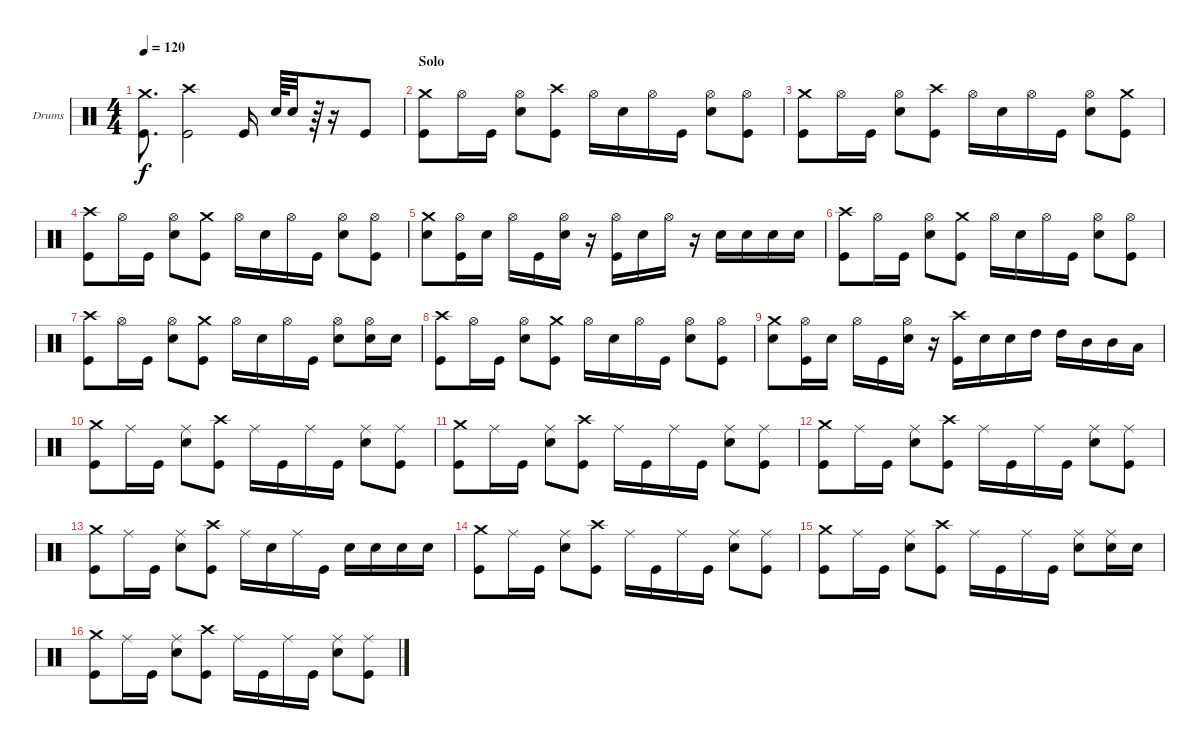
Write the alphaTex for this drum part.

\defaultSystemsLayout 4
\bracketExtendMode nobrackets
\firstSystemTrackNameOrientation horizontal
\otherSystemsTrackNameOrientation horizontal
\track ("Dave Krusen" "Drums") {instrument percussion}
\staff {score}
\articulation defaults
\ts (4 4)
\tempo 120
\clef neutral
\ks c
("Crash medium (hit)" "Kick (hit)").8{d dy f} ("Crash high (hit)" "Kick (hit)").2 "Kick (hit)".16 "Snare (hit) 2".64 "Snare (hit) 2".32 r.64 r.16 "Kick (hit)".8 |
\section ("" "Solo")
("Crash medium (hit)" "Kick (hit)").8 "Hi-Hat (open)".16 "Kick (hit)".16 ("Hi-Hat (open)" "Snare (hit) 2").8 ("Crash high (hit)" "Kick (hit)").8 "Hi-Hat (open)".16 "Snare (hit) 2".16 "Hi-Hat (open)".16 "Kick (hit)".16 ("Hi-Hat (open)" "Snare (hit) 2").8 ("Hi-Hat (open)" "Kick (hit)").8 |
("Crash medium (hit)" "Kick (hit)").8 "Hi-Hat (open)".16 "Kick (hit)".16 ("Hi-Hat (open)" "Snare (hit) 2").8 ("Crash high (hit)" "Kick (hit)").8 "Hi-Hat (open)".16 "Snare (hit) 2".16 "Hi-Hat (open)".16 "Kick (hit)".16 ("Hi-Hat (open)" "Snare (hit) 2").8 ("Crash medium (hit)" "Kick (hit)").8 |
("Crash high (hit)" "Kick (hit)").8 "Hi-Hat (open)".16 "Kick (hit)".16 ("Hi-Hat (open)" "Snare (hit) 2").8 ("Crash medium (hit)" "Kick (hit)").8 "Hi-Hat (open)".16 "Snare (hit) 2".16 "Hi-Hat (open)".16 "Kick (hit)".16 ("Hi-Hat (open)" "Snare (hit) 2").8 ("Hi-Hat (open)" "Kick (hit)").8 |
("Crash medium (hit)" "Snare (hit) 2").8 ("Hi-Hat (open)" "Kick (hit)").16 "Snare (hit) 2".16 "Hi-Hat (open)".16 "Kick (hit)".16 ("Hi-Hat (open)" "Snare (hit) 2").16 r.16 ("Hi-Hat (open)" "Kick (hit)").16 "Snare (hit) 2".16 "Hi-Hat (open)".16 r.16 "Snare (hit) 2".16 "Snare (hit) 2".16 "Snare (hit) 2".16 "Snare (hit) 2".16 |
("Crash high (hit)" "Kick (hit)").8 "Hi-Hat (open)".16 "Kick (hit)".16 ("Hi-Hat (open)" "Snare (hit) 2").8 ("Crash medium (hit)" "Kick (hit)").8 "Hi-Hat (open)".16 "Snare (hit) 2".16 "Hi-Hat (open)".16 "Kick (hit)".16 ("Hi-Hat (open)" "Snare (hit) 2").8 ("Hi-Hat (open)" "Kick (hit)").8 |
("Crash high (hit)" "Kick (hit)").8 "Hi-Hat (open)".16 "Kick (hit)".16 ("Hi-Hat (open)" "Snare (hit) 2").8 ("Crash medium (hit)" "Kick (hit)").8 "Hi-Hat (open)".16 "Snare (hit) 2".16 "Hi-Hat (open)".16 "Kick (hit)".16 ("Hi-Hat (open)" "Snare (hit) 2").8 ("Hi-Hat (open)" "Snare (hit) 2").16 "Snare (hit) 2".16 |
("Crash high (hit)" "Kick (hit)").8 "Hi-Hat (open)".16 "Kick (hit)".16 ("Hi-Hat (open)" "Snare (hit) 2").8 ("Crash medium (hit)" "Kick (hit)").8 "Hi-Hat (open)".16 "Snare (hit) 2".16 "Hi-Hat (open)".16 "Kick (hit)".16 ("Hi-Hat (open)" "Snare (hit) 2").8 ("Hi-Hat (open)" "Kick (hit)").8 |
("Crash medium (hit)" "Snare (hit) 2").8 ("Hi-Hat (open)" "Kick (hit)").16 "Snare (hit) 2".16 "Hi-Hat (open)".16 "Kick (hit)".16 ("Hi-Hat (open)" "Snare (hit) 2").16 r.16 ("Crash high (hit)" "Kick (hit)").16 "Snare (hit) 2".16 "Snare (hit) 2".16 "High Tom (hit)".16 "High Tom (hit)".16 "Mid Tom (hit)".16 "Mid Tom (hit)".16 "Low Tom (hit)".16 |
("Crash medium (hit)" "Kick (hit)").8 "Ride (middle)".16 "Kick (hit)".16 ("Ride (middle)" "Snare (hit) 2").8 ("Crash high (hit)" "Kick (hit)").8 "Ride (middle)".16 "Kick (hit)".16 "Ride (middle)".16 "Kick (hit)".16 ("Ride (middle)" "Snare (hit) 2").8 ("Ride (middle)" "Kick (hit)").8 |
("Crash medium (hit)" "Kick (hit)").8 "Ride (middle)".16 "Kick (hit)".16 ("Ride (middle)" "Snare (hit) 2").8 ("Crash high (hit)" "Kick (hit)").8 "Ride (middle)".16 "Kick (hit)".16 "Ride (middle)".16 "Kick (hit)".16 ("Ride (middle)" "Snare (hit) 2").8 ("Ride (middle)" "Kick (hit)").8 |
("Crash medium (hit)" "Kick (hit)").8 "Ride (middle)".16 "Kick (hit)".16 ("Ride (middle)" "Snare (hit) 2").8 ("Crash high (hit)" "Kick (hit)").8 "Ride (middle)".16 "Kick (hit)".16 "Ride (middle)".16 "Kick (hit)".16 ("Ride (middle)" "Snare (hit) 2").8 ("Ride (middle)" "Kick (hit)").8 |
("Crash medium (hit)" "Kick (hit)").8 "Ride (middle)".16 "Kick (hit)".16 ("Ride (middle)" "Snare (hit) 2").8 ("Crash high (hit)" "Kick (hit)").8 "Ride (middle)".16 "Snare (hit) 2".16 "Ride (middle)".16 "Kick (hit)".16 "Snare (hit) 2".16 "Snare (hit) 2".16 "Snare (hit) 2".16 "Snare (hit) 2".16 |
("Crash medium (hit)" "Kick (hit)").8 "Ride (middle)".16 "Kick (hit)".16 ("Ride (middle)" "Snare (hit) 2").8 ("Crash high (hit)" "Kick (hit)").8 "Ride (middle)".16 "Kick (hit)".16 "Ride (middle)".16 "Kick (hit)".16 ("Ride (middle)" "Snare (hit) 2").8 ("Ride (middle)" "Kick (hit)").8 |
("Crash medium (hit)" "Kick (hit)").8 "Ride (middle)".16 "Kick (hit)".16 ("Ride (middle)" "Snare (hit) 2").8 ("Crash high (hit)" "Kick (hit)").8 "Ride (middle)".16 "Kick (hit)".16 "Ride (middle)".16 "Kick (hit)".16 ("Ride (middle)" "Snare (hit) 2").8 ("Ride (middle)" "Snare (hit) 2").16 "Snare (hit) 2".16 |
("Crash medium (hit)" "Kick (hit)").8 "Ride (middle)".16 "Kick (hit)".16 ("Ride (middle)" "Snare (hit) 2").8 ("Crash high (hit)" "Kick (hit)").8 "Ride (middle)".16 "Kick (hit)".16 "Ride (middle)".16 "Kick (hit)".16 ("Ride (middle)" "Snare (hit) 2").8 ("Ride (middle)" "Kick (hit)").8
